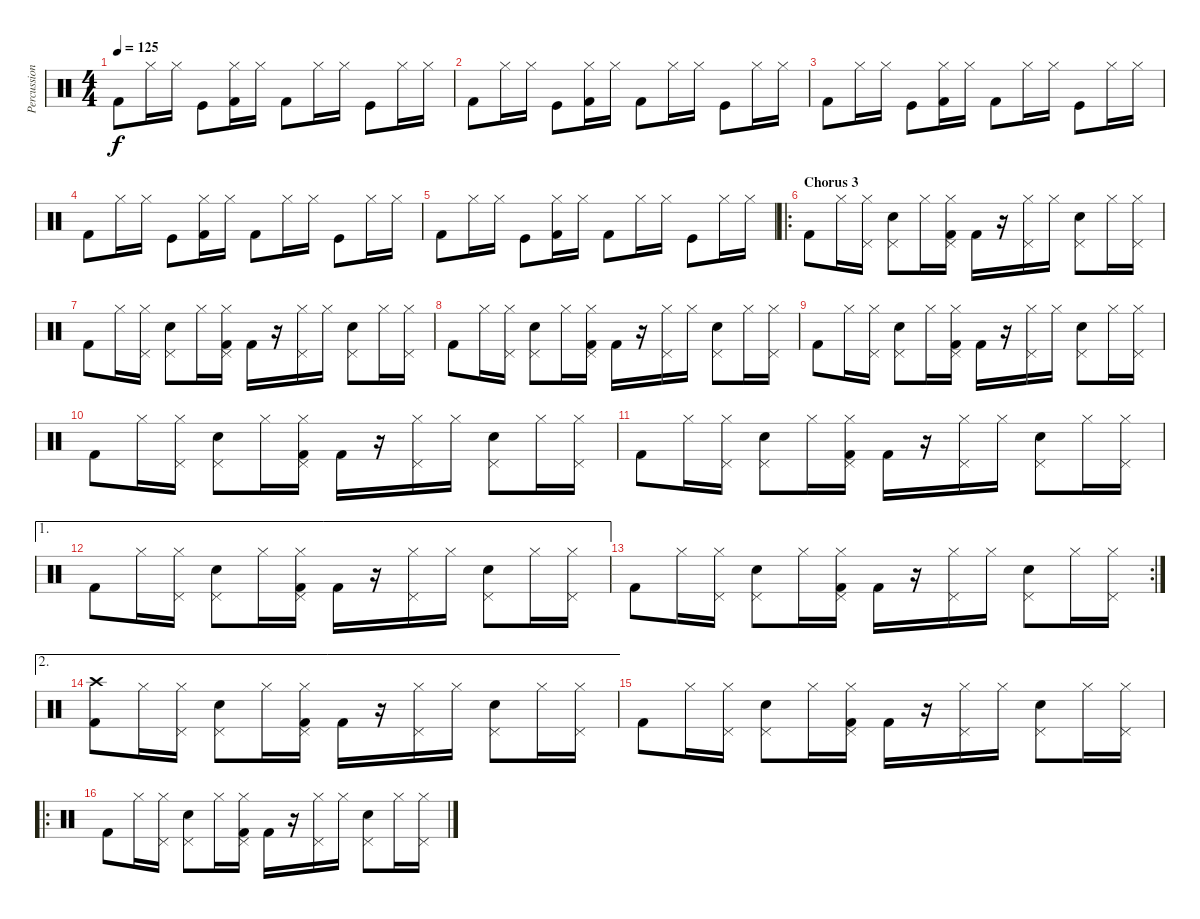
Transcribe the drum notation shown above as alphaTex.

\track ("Percussions" "Percussion") {instrument percussion}
\staff {score}
\articulation defaults
\ts (4 4)
\tempo 125
\clef neutral
\ks c "Kick (hit) 2".8{dy f volume 10} "Hi-Hat (closed)".16 "Hi-Hat (closed)".16 "Kick (hit)".8
("Hi-Hat (closed)" "Kick (hit) 2").16 "Hi-Hat (closed)".16 "Kick (hit) 2".8 "Hi-Hat (closed)".16 "Hi-Hat (closed)".16 "Kick (hit)".8 "Hi-Hat (closed)".16 "Hi-Hat (closed)".16 |
"Kick (hit) 2".8{volume 10} "Hi-Hat (closed)".16 "Hi-Hat (closed)".16 "Kick (hit)".8 ("Hi-Hat (closed)" "Kick (hit) 2").16 "Hi-Hat (closed)".16 "Kick (hit) 2".8 "Hi-Hat (closed)".16 "Hi-Hat (closed)".16 "Kick (hit)".8 "Hi-Hat (closed)".16 "Hi-Hat (closed)".16 |
"Kick (hit) 2".8{volume 11} "Hi-Hat (closed)".16 "Hi-Hat (closed)".16 "Kick (hit)".8 ("Hi-Hat (closed)" "Kick (hit) 2").16 "Hi-Hat (closed)".16 "Kick (hit) 2".8{volume 12} "Hi-Hat (closed)".16 "Hi-Hat (closed)".16 "Kick (hit)".8 "Hi-Hat (closed)".16 "Hi-Hat (closed)".16 |
"Kick (hit) 2".8{volume 13} "Hi-Hat (closed)".16 "Hi-Hat (closed)".16 "Kick (hit)".8 ("Hi-Hat (closed)" "Kick (hit) 2").16 "Hi-Hat (closed)".16 "Kick (hit) 2".8{volume 14} "Hi-Hat (closed)".16 "Hi-Hat (closed)".16 "Kick (hit)".8 "Hi-Hat (closed)".16 "Hi-Hat (closed)".16 |
"Kick (hit) 2".8{volume 15} "Hi-Hat (closed)".16 "Hi-Hat (closed)".16 "Kick (hit)".8 ("Hi-Hat (closed)" "Kick (hit) 2").16 "Hi-Hat (closed)".16 "Kick (hit) 2".8{volume 16} "Hi-Hat (closed)".16 "Hi-Hat (closed)".16 "Kick (hit)".8 "Hi-Hat (closed)".16 "Hi-Hat (closed)".16 |
\ro
\section ("" "Chorus 3")
"Kick (hit) 2".8 "Hi-Hat (closed)".16 ("Pedal Hi-Hat (hit)" "Hi-Hat (closed)").16 ("Pedal Hi-Hat (hit)" "Electric Snare (hit)").8 "Hi-Hat (closed)".16 ("Pedal Hi-Hat (hit)" "Hi-Hat (closed)" "Kick (hit) 2").16 "Kick (hit) 2".16 r.16 ("Pedal Hi-Hat (hit)" "Hi-Hat (closed)").16 "Hi-Hat (closed)".16 ("Pedal Hi-Hat (hit)" "Electric Snare (hit)").8 "Hi-Hat (closed)".16 ("Pedal Hi-Hat (hit)" "Hi-Hat (closed)").16 |
"Kick (hit) 2".8 "Hi-Hat (closed)".16 ("Pedal Hi-Hat (hit)" "Hi-Hat (closed)").16 ("Pedal Hi-Hat (hit)" "Electric Snare (hit)").8 "Hi-Hat (closed)".16 ("Pedal Hi-Hat (hit)" "Hi-Hat (closed)" "Kick (hit) 2").16 "Kick (hit) 2".16 r.16 ("Pedal Hi-Hat (hit)" "Hi-Hat (closed)").16 "Hi-Hat (closed)".16 ("Pedal Hi-Hat (hit)" "Electric Snare (hit)").8 "Hi-Hat (closed)".16 ("Pedal Hi-Hat (hit)" "Hi-Hat (closed)").16 |
"Kick (hit) 2".8 "Hi-Hat (closed)".16 ("Pedal Hi-Hat (hit)" "Hi-Hat (closed)").16 ("Pedal Hi-Hat (hit)" "Electric Snare (hit)").8 "Hi-Hat (closed)".16 ("Pedal Hi-Hat (hit)" "Hi-Hat (closed)" "Kick (hit) 2").16 "Kick (hit) 2".16 r.16 ("Pedal Hi-Hat (hit)" "Hi-Hat (closed)").16 "Hi-Hat (closed)".16 ("Pedal Hi-Hat (hit)" "Electric Snare (hit)").8 "Hi-Hat (closed)".16 ("Pedal Hi-Hat (hit)" "Hi-Hat (closed)").16 |
"Kick (hit) 2".8 "Hi-Hat (closed)".16 ("Pedal Hi-Hat (hit)" "Hi-Hat (closed)").16 ("Pedal Hi-Hat (hit)" "Electric Snare (hit)").8 "Hi-Hat (closed)".16 ("Pedal Hi-Hat (hit)" "Hi-Hat (closed)" "Kick (hit) 2").16 "Kick (hit) 2".16 r.16 ("Pedal Hi-Hat (hit)" "Hi-Hat (closed)").16 "Hi-Hat (closed)".16 ("Pedal Hi-Hat (hit)" "Electric Snare (hit)").8 "Hi-Hat (closed)".16 ("Pedal Hi-Hat (hit)" "Hi-Hat (closed)").16 |
"Kick (hit) 2".8 "Hi-Hat (closed)".16 ("Pedal Hi-Hat (hit)" "Hi-Hat (closed)").16 ("Pedal Hi-Hat (hit)" "Electric Snare (hit)").8 "Hi-Hat (closed)".16 ("Pedal Hi-Hat (hit)" "Hi-Hat (closed)" "Kick (hit) 2").16 "Kick (hit) 2".16 r.16 ("Pedal Hi-Hat (hit)" "Hi-Hat (closed)").16 "Hi-Hat (closed)".16 ("Pedal Hi-Hat (hit)" "Electric Snare (hit)").8 "Hi-Hat (closed)".16 ("Pedal Hi-Hat (hit)" "Hi-Hat (closed)").16 |
"Kick (hit) 2".8 "Hi-Hat (closed)".16 ("Pedal Hi-Hat (hit)" "Hi-Hat (closed)").16 ("Pedal Hi-Hat (hit)" "Electric Snare (hit)").8 "Hi-Hat (closed)".16 ("Pedal Hi-Hat (hit)" "Hi-Hat (closed)" "Kick (hit) 2").16 "Kick (hit) 2".16 r.16 ("Pedal Hi-Hat (hit)" "Hi-Hat (closed)").16 "Hi-Hat (closed)".16 ("Pedal Hi-Hat (hit)" "Electric Snare (hit)").8 "Hi-Hat (closed)".16 ("Pedal Hi-Hat (hit)" "Hi-Hat (closed)").16 |
\ae 1 "Kick (hit) 2".8 "Hi-Hat (closed)".16
("Pedal Hi-Hat (hit)" "Hi-Hat (closed)").16 ("Pedal Hi-Hat (hit)" "Electric Snare (hit)").8 "Hi-Hat (closed)".16 ("Pedal Hi-Hat (hit)" "Hi-Hat (closed)" "Kick (hit) 2").16 "Kick (hit) 2".16 r.16 ("Pedal Hi-Hat (hit)" "Hi-Hat (closed)").16 "Hi-Hat (closed)".16 ("Pedal Hi-Hat (hit)" "Electric Snare (hit)").8 "Hi-Hat (closed)".16 ("Pedal Hi-Hat (hit)" "Hi-Hat (closed)").16 |
\rc 2 "Kick (hit) 2".8 "Hi-Hat (closed)".16
("Pedal Hi-Hat (hit)" "Hi-Hat (closed)").16 ("Pedal Hi-Hat (hit)" "Electric Snare (hit)").8 "Hi-Hat (closed)".16 ("Pedal Hi-Hat (hit)" "Hi-Hat (closed)" "Kick (hit) 2").16 "Kick (hit) 2".16 r.16 ("Pedal Hi-Hat (hit)" "Hi-Hat (closed)").16 "Hi-Hat (closed)".16 ("Pedal Hi-Hat (hit)" "Electric Snare (hit)").8 "Hi-Hat (closed)".16 ("Pedal Hi-Hat (hit)" "Hi-Hat (closed)").16 |
\ae 2
("Crash high (hit)" "Kick (hit) 2").8 "Hi-Hat (closed)".16 ("Pedal Hi-Hat (hit)" "Hi-Hat (closed)").16 ("Pedal Hi-Hat (hit)" "Electric Snare (hit)").8 "Hi-Hat (closed)".16 ("Pedal Hi-Hat (hit)" "Hi-Hat (closed)" "Kick (hit) 2").16 "Kick (hit) 2".16 r.16 ("Pedal Hi-Hat (hit)" "Hi-Hat (closed)").16 "Hi-Hat (closed)".16 ("Pedal Hi-Hat (hit)" "Electric Snare (hit)").8 "Hi-Hat (closed)".16 ("Pedal Hi-Hat (hit)" "Hi-Hat (closed)").16 |
"Kick (hit) 2".8 "Hi-Hat (closed)".16 ("Pedal Hi-Hat (hit)" "Hi-Hat (closed)").16 ("Pedal Hi-Hat (hit)" "Electric Snare (hit)").8 "Hi-Hat (closed)".16 ("Pedal Hi-Hat (hit)" "Hi-Hat (closed)" "Kick (hit) 2").16 "Kick (hit) 2".16 r.16 ("Pedal Hi-Hat (hit)" "Hi-Hat (closed)").16 "Hi-Hat (closed)".16 ("Pedal Hi-Hat (hit)" "Electric Snare (hit)").8 "Hi-Hat (closed)".16 ("Pedal Hi-Hat (hit)" "Hi-Hat (closed)").16 |
\ro "Kick (hit) 2".8 "Hi-Hat (closed)".16
("Pedal Hi-Hat (hit)" "Hi-Hat (closed)").16 ("Pedal Hi-Hat (hit)" "Electric Snare (hit)").8 "Hi-Hat (closed)".16 ("Pedal Hi-Hat (hit)" "Hi-Hat (closed)" "Kick (hit) 2").16 "Kick (hit) 2".16 r.16 ("Pedal Hi-Hat (hit)" "Hi-Hat (closed)").16 "Hi-Hat (closed)".16 ("Pedal Hi-Hat (hit)" "Electric Snare (hit)").8 "Hi-Hat (closed)".16 ("Pedal Hi-Hat (hit)" "Hi-Hat (closed)").16
